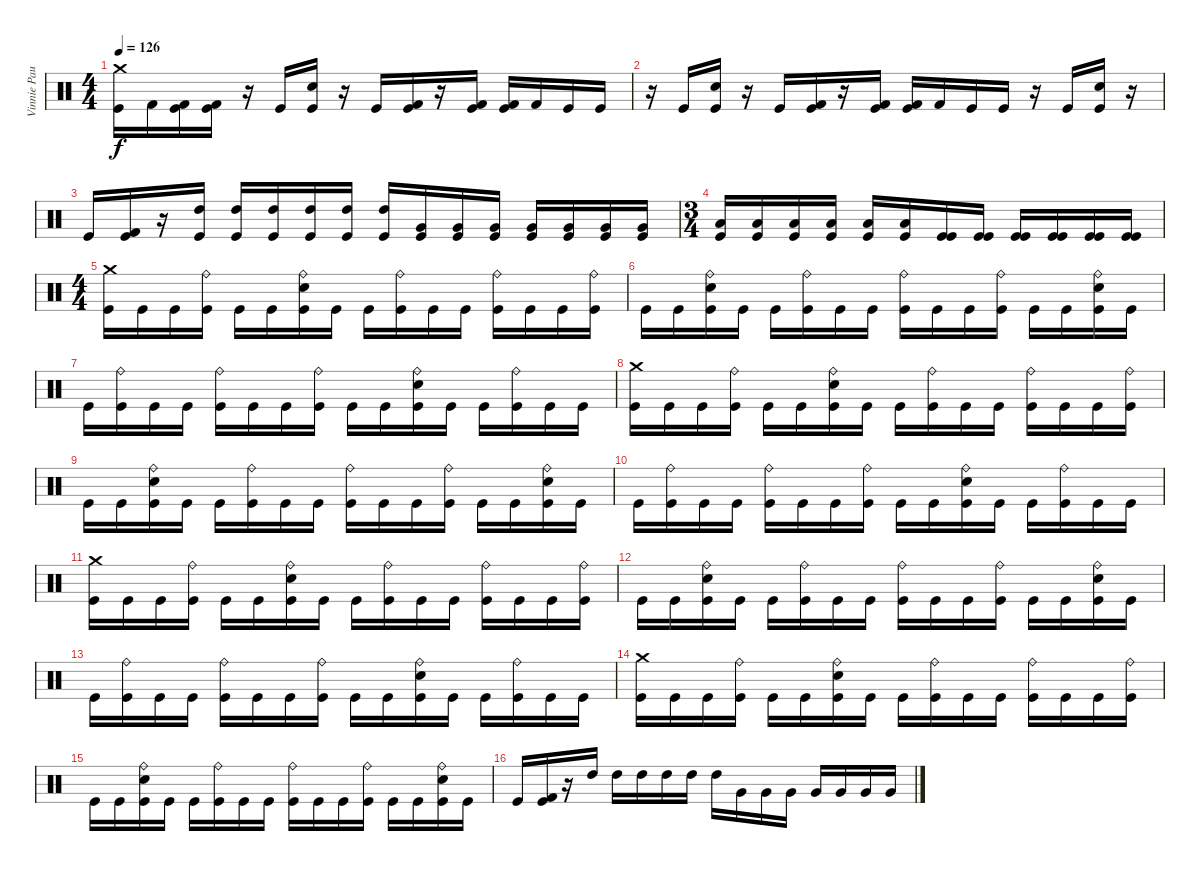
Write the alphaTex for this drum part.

\track ("Vinnie Paul" "Vinnie Pau") {instrument percussion}
\staff {score}
\articulation defaults
\ts (4 4)
\tempo 126
\clef neutral
\ks c
("Kick (hit)" "Crash medium (hit)").16{dy f} "Kick (hit) 2".16 ("Kick (hit)" "Kick (hit) 2").16 ("Kick (hit)" "Kick (hit) 2").16 r.16 "Kick (hit)".16 ("Kick (hit)" "Snare (hit) 2").16 r.16 "Kick (hit)".16 ("Kick (hit)" "Kick (hit) 2").16 r.16 ("Kick (hit)" "Kick (hit) 2").16 ("Kick (hit)" "Kick (hit) 2").16 "Kick (hit) 2".16 "Kick (hit)".16 "Kick (hit)".16 |
r.16 "Kick (hit)".16 ("Kick (hit)" "Snare (hit) 2").16 r.16 "Kick (hit)".16 ("Kick (hit)" "Kick (hit) 2").16 r.16 ("Kick (hit)" "Kick (hit) 2").16 ("Kick (hit)" "Kick (hit) 2").16 "Kick (hit) 2".16 "Kick (hit)".16 "Kick (hit)".16 r.16 "Kick (hit)".16 ("Kick (hit)" "Snare (hit) 2").16 r.16 |
"Kick (hit)".16 ("Kick (hit)" "Kick (hit) 2").16 r.16 ("High Tom (hit)" "Kick (hit)").16 ("High Tom (hit)" "Kick (hit)").16 ("High Tom (hit)" "Kick (hit)").16 ("High Tom (hit)" "Kick (hit)").16 ("High Tom (hit)" "Kick (hit)").16 ("High Tom (hit)" "Kick (hit)").16 ("Very Low Tom (hit)" "Kick (hit)").16 ("Very Low Tom (hit)" "Kick (hit)").16 ("Very Low Tom (hit)" "Kick (hit)").16 ("Very Low Tom (hit)" "Kick (hit)").16 ("Very Low Tom (hit)" "Kick (hit)").16 ("Very Low Tom (hit)" "Kick (hit)").16 ("Very Low Tom (hit)" "Kick (hit)").16 |
\ts (3 4)
("Low Floor Tom (hit)" "Kick (hit)").16 ("Low Floor Tom (hit)" "Kick (hit)").16 ("Low Floor Tom (hit)" "Kick (hit)").16 ("Low Floor Tom (hit)" "Kick (hit)").16 ("Low Floor Tom (hit)" "Kick (hit)").16 ("Low Floor Tom (hit)" "Kick (hit)").16 ("Kick (hit)" "Kick (hit)").16 ("Kick (hit)" "Kick (hit)").16 ("Kick (hit)" "Kick (hit)").16 ("Kick (hit)" "Kick (hit)").16 ("Kick (hit)" "Kick (hit)").16 ("Kick (hit)" "Kick (hit)").16 |
\ts (4 4)
("Kick (hit)" "Crash medium (hit)").16 "Kick (hit)".16 "Kick (hit)".16 ("Kick (hit)" "Ride (bell)").16 "Kick (hit)".16 "Kick (hit)".16 ("Kick (hit)" "Snare (hit) 2" "Ride (bell)").16 "Kick (hit)".16 "Kick (hit)".16 ("Kick (hit)" "Ride (bell)").16 "Kick (hit)".16 "Kick (hit)".16 ("Kick (hit)" "Ride (bell)").16 "Kick (hit)".16 "Kick (hit)".16 ("Kick (hit)" "Ride (bell)").16 |
"Kick (hit)".16 "Kick (hit)".16 ("Kick (hit)" "Snare (hit) 2" "Ride (bell)").16 "Kick (hit)".16 "Kick (hit)".16 ("Kick (hit)" "Ride (bell)").16 "Kick (hit)".16 "Kick (hit)".16 ("Kick (hit)" "Ride (bell)").16 "Kick (hit)".16 "Kick (hit)".16 ("Kick (hit)" "Ride (bell)").16 "Kick (hit)".16 "Kick (hit)".16 ("Kick (hit)" "Snare (hit) 2" "Ride (bell)").16 "Kick (hit)".16 |
"Kick (hit)".16 ("Kick (hit)" "Ride (bell)").16 "Kick (hit)".16 "Kick (hit)".16 ("Kick (hit)" "Ride (bell)").16 "Kick (hit)".16 "Kick (hit)".16 ("Kick (hit)" "Ride (bell)").16 "Kick (hit)".16 "Kick (hit)".16 ("Kick (hit)" "Snare (hit) 2" "Ride (bell)").16 "Kick (hit)".16 "Kick (hit)".16 ("Kick (hit)" "Ride (bell)").16 "Kick (hit)".16 "Kick (hit)".16 |
("Kick (hit)" "Crash medium (hit)").16 "Kick (hit)".16 "Kick (hit)".16 ("Kick (hit)" "Ride (bell)").16 "Kick (hit)".16 "Kick (hit)".16 ("Kick (hit)" "Snare (hit) 2" "Ride (bell)").16 "Kick (hit)".16 "Kick (hit)".16 ("Kick (hit)" "Ride (bell)").16 "Kick (hit)".16 "Kick (hit)".16 ("Kick (hit)" "Ride (bell)").16 "Kick (hit)".16 "Kick (hit)".16 ("Kick (hit)" "Ride (bell)").16 |
"Kick (hit)".16 "Kick (hit)".16 ("Kick (hit)" "Snare (hit) 2" "Ride (bell)").16 "Kick (hit)".16 "Kick (hit)".16 ("Kick (hit)" "Ride (bell)").16 "Kick (hit)".16 "Kick (hit)".16 ("Kick (hit)" "Ride (bell)").16 "Kick (hit)".16 "Kick (hit)".16 ("Kick (hit)" "Ride (bell)").16 "Kick (hit)".16 "Kick (hit)".16 ("Kick (hit)" "Snare (hit) 2" "Ride (bell)").16 "Kick (hit)".16 |
"Kick (hit)".16 ("Kick (hit)" "Ride (bell)").16 "Kick (hit)".16 "Kick (hit)".16 ("Kick (hit)" "Ride (bell)").16 "Kick (hit)".16 "Kick (hit)".16 ("Kick (hit)" "Ride (bell)").16 "Kick (hit)".16 "Kick (hit)".16 ("Kick (hit)" "Snare (hit) 2" "Ride (bell)").16 "Kick (hit)".16 "Kick (hit)".16 ("Kick (hit)" "Ride (bell)").16 "Kick (hit)".16 "Kick (hit)".16 |
("Kick (hit)" "Crash medium (hit)").16 "Kick (hit)".16 "Kick (hit)".16 ("Kick (hit)" "Ride (bell)").16 "Kick (hit)".16 "Kick (hit)".16 ("Kick (hit)" "Snare (hit) 2" "Ride (bell)").16 "Kick (hit)".16 "Kick (hit)".16 ("Kick (hit)" "Ride (bell)").16 "Kick (hit)".16 "Kick (hit)".16 ("Kick (hit)" "Ride (bell)").16 "Kick (hit)".16 "Kick (hit)".16 ("Kick (hit)" "Ride (bell)").16 |
"Kick (hit)".16 "Kick (hit)".16 ("Kick (hit)" "Snare (hit) 2" "Ride (bell)").16 "Kick (hit)".16 "Kick (hit)".16 ("Kick (hit)" "Ride (bell)").16 "Kick (hit)".16 "Kick (hit)".16 ("Kick (hit)" "Ride (bell)").16 "Kick (hit)".16 "Kick (hit)".16 ("Kick (hit)" "Ride (bell)").16 "Kick (hit)".16 "Kick (hit)".16 ("Kick (hit)" "Snare (hit) 2" "Ride (bell)").16 "Kick (hit)".16 |
"Kick (hit)".16 ("Kick (hit)" "Ride (bell)").16 "Kick (hit)".16 "Kick (hit)".16 ("Kick (hit)" "Ride (bell)").16 "Kick (hit)".16 "Kick (hit)".16 ("Kick (hit)" "Ride (bell)").16 "Kick (hit)".16 "Kick (hit)".16 ("Kick (hit)" "Snare (hit) 2" "Ride (bell)").16 "Kick (hit)".16 "Kick (hit)".16 ("Kick (hit)" "Ride (bell)").16 "Kick (hit)".16 "Kick (hit)".16 |
("Kick (hit)" "Crash medium (hit)").16 "Kick (hit)".16 "Kick (hit)".16 ("Kick (hit)" "Ride (bell)").16 "Kick (hit)".16 "Kick (hit)".16 ("Kick (hit)" "Snare (hit) 2" "Ride (bell)").16 "Kick (hit)".16 "Kick (hit)".16 ("Kick (hit)" "Ride (bell)").16 "Kick (hit)".16 "Kick (hit)".16 ("Kick (hit)" "Ride (bell)").16 "Kick (hit)".16 "Kick (hit)".16 ("Kick (hit)" "Ride (bell)").16 |
"Kick (hit)".16 "Kick (hit)".16 ("Kick (hit)" "Snare (hit) 2" "Ride (bell)").16 "Kick (hit)".16 "Kick (hit)".16 ("Kick (hit)" "Ride (bell)").16 "Kick (hit)".16 "Kick (hit)".16 ("Kick (hit)" "Ride (bell)").16 "Kick (hit)".16 "Kick (hit)".16 ("Kick (hit)" "Ride (bell)").16 "Kick (hit)".16 "Kick (hit)".16 ("Kick (hit)" "Snare (hit) 2" "Ride (bell)").16 "Kick (hit)".16 |
"Kick (hit)".16 ("Kick (hit)" "Kick (hit) 2").16 r.16 "High Tom (hit)".16 "High Tom (hit)".16 "High Tom (hit)".16 "High Tom (hit)".16 "High Tom (hit)".16 "High Tom (hit)".16 "Very Low Tom (hit)".16 "Very Low Tom (hit)".16 "Very Low Tom (hit)".16 "Very Low Tom (hit)".16 "Very Low Tom (hit)".16 "Very Low Tom (hit)".16 "Very Low Tom (hit)".16
